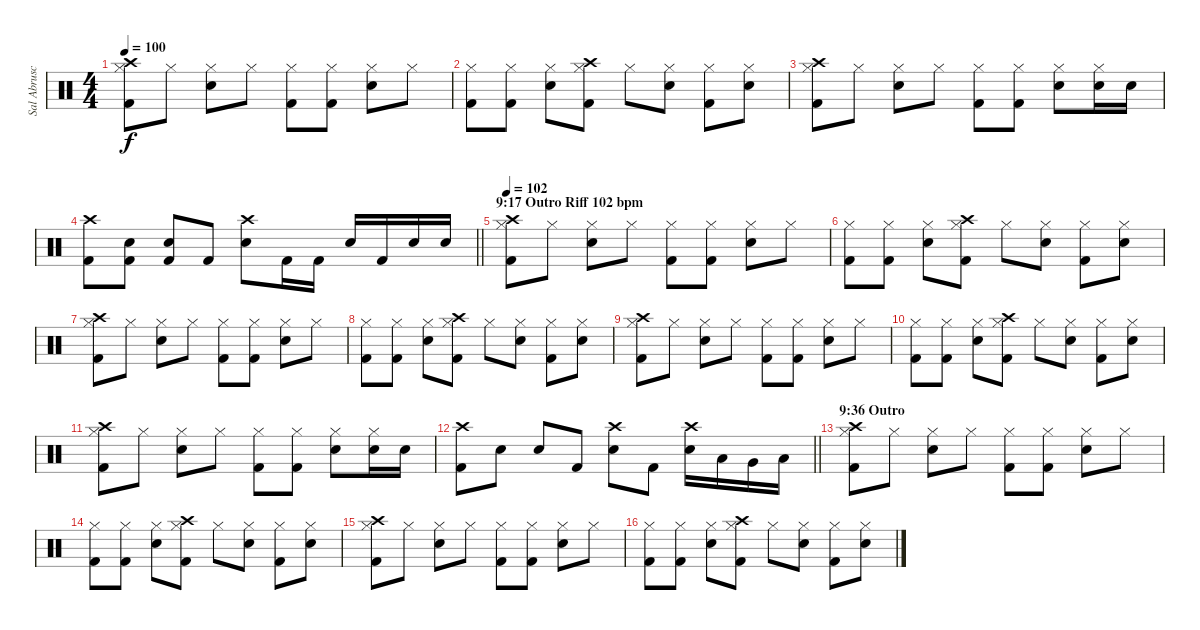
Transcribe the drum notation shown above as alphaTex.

\track ("Sal Abruscato (Drums)" "Sal Abrusc") {instrument percussion}
\staff {score}
\articulation defaults
\ts (4 4)
\tempo 100
\clef neutral
\ks c
("Crash high (hit)" "Hi-Hat (closed)" "Kick (hit) 2").8{dy f} "Hi-Hat (closed)".8 ("Hi-Hat (closed)" "Electric Snare (hit)").8 "Hi-Hat (closed)".8 ("Hi-Hat (closed)" "Kick (hit) 2").8 ("Hi-Hat (closed)" "Kick (hit) 2").8 ("Hi-Hat (closed)" "Electric Snare (hit)").8 "Hi-Hat (closed)".8 |
("Hi-Hat (closed)" "Kick (hit) 2").8 ("Hi-Hat (closed)" "Kick (hit) 2").8 ("Hi-Hat (closed)" "Electric Snare (hit)").8 ("Crash high (hit)" "Hi-Hat (closed)" "Kick (hit) 2").8 "Hi-Hat (closed)".8 ("Hi-Hat (closed)" "Electric Snare (hit)").8 ("Hi-Hat (closed)" "Kick (hit) 2").8 ("Hi-Hat (closed)" "Electric Snare (hit)").8 |
("Crash high (hit)" "Hi-Hat (closed)" "Kick (hit) 2").8 "Hi-Hat (closed)".8 ("Hi-Hat (closed)" "Electric Snare (hit)").8 "Hi-Hat (closed)".8 ("Hi-Hat (closed)" "Kick (hit) 2").8 ("Hi-Hat (closed)" "Kick (hit) 2").8 ("Hi-Hat (closed)" "Electric Snare (hit)").8 ("Electric Snare (hit)" "Hi-Hat (closed)").16 "Electric Snare (hit)".16 |
\barLineRight lightlight
("Crash high (hit)" "Kick (hit) 2").8 ("Electric Snare (hit)" "Kick (hit) 2").8 ("Electric Snare (hit)" "Kick (hit) 2").8 "Kick (hit) 2".8 ("Crash high (hit)" "Electric Snare (hit)").8 "Kick (hit) 2".16 "Kick (hit) 2".16 "Electric Snare (hit)".16 "Kick (hit) 2".16 "Electric Snare (hit)".16 "Electric Snare (hit)".16 |
\section ("" "9:17 Outro Riff 102 bpm")
\tempo 102
("Crash high (hit)" "Hi-Hat (closed)" "Kick (hit) 2").8 "Hi-Hat (closed)".8 ("Hi-Hat (closed)" "Electric Snare (hit)").8 "Hi-Hat (closed)".8 ("Hi-Hat (closed)" "Kick (hit) 2").8 ("Hi-Hat (closed)" "Kick (hit) 2").8 ("Hi-Hat (closed)" "Electric Snare (hit)").8 "Hi-Hat (closed)".8 |
("Hi-Hat (closed)" "Kick (hit) 2").8 ("Hi-Hat (closed)" "Kick (hit) 2").8 ("Hi-Hat (closed)" "Electric Snare (hit)").8 ("Crash high (hit)" "Hi-Hat (closed)" "Kick (hit) 2").8 "Hi-Hat (closed)".8 ("Hi-Hat (closed)" "Electric Snare (hit)").8 ("Hi-Hat (closed)" "Kick (hit) 2").8 ("Hi-Hat (closed)" "Electric Snare (hit)").8 |
("Crash high (hit)" "Hi-Hat (closed)" "Kick (hit) 2").8 "Hi-Hat (closed)".8 ("Hi-Hat (closed)" "Electric Snare (hit)").8 "Hi-Hat (closed)".8 ("Hi-Hat (closed)" "Kick (hit) 2").8 ("Hi-Hat (closed)" "Kick (hit) 2").8 ("Hi-Hat (closed)" "Electric Snare (hit)").8 "Hi-Hat (closed)".8 |
("Hi-Hat (closed)" "Kick (hit) 2").8 ("Hi-Hat (closed)" "Kick (hit) 2").8 ("Hi-Hat (closed)" "Electric Snare (hit)").8 ("Crash high (hit)" "Hi-Hat (closed)" "Kick (hit) 2").8 "Hi-Hat (closed)".8 ("Hi-Hat (closed)" "Electric Snare (hit)").8 ("Hi-Hat (closed)" "Kick (hit) 2").8 ("Hi-Hat (closed)" "Electric Snare (hit)").8 |
("Crash high (hit)" "Hi-Hat (closed)" "Kick (hit) 2").8 "Hi-Hat (closed)".8 ("Hi-Hat (closed)" "Electric Snare (hit)").8 "Hi-Hat (closed)".8 ("Hi-Hat (closed)" "Kick (hit) 2").8 ("Hi-Hat (closed)" "Kick (hit) 2").8 ("Hi-Hat (closed)" "Electric Snare (hit)").8 "Hi-Hat (closed)".8 |
("Hi-Hat (closed)" "Kick (hit) 2").8 ("Hi-Hat (closed)" "Kick (hit) 2").8 ("Hi-Hat (closed)" "Electric Snare (hit)").8 ("Crash high (hit)" "Hi-Hat (closed)" "Kick (hit) 2").8 "Hi-Hat (closed)".8 ("Hi-Hat (closed)" "Electric Snare (hit)").8 ("Hi-Hat (closed)" "Kick (hit) 2").8 ("Hi-Hat (closed)" "Electric Snare (hit)").8 |
("Crash high (hit)" "Hi-Hat (closed)" "Kick (hit) 2").8 "Hi-Hat (closed)".8 ("Hi-Hat (closed)" "Electric Snare (hit)").8 "Hi-Hat (closed)".8 ("Hi-Hat (closed)" "Kick (hit) 2").8 ("Hi-Hat (closed)" "Kick (hit) 2").8 ("Hi-Hat (closed)" "Electric Snare (hit)").8 ("Electric Snare (hit)" "Hi-Hat (closed)").16 "Electric Snare (hit)".16 |
\barLineRight lightlight
("Crash high (hit)" "Kick (hit) 2").8 "Electric Snare (hit)".8 "Electric Snare (hit)".8 "Kick (hit) 2".8 ("Crash high (hit)" "Electric Snare (hit)").8 "Kick (hit) 2".8 ("Crash high (hit)" "Electric Snare (hit)").16 "Low Tom (hit)".16 "Very Low Tom (hit)".16 "Low Floor Tom (hit)".16 |
\section ("" "9:36 Outro")
("Crash high (hit)" "Hi-Hat (closed)" "Kick (hit) 2").8 "Hi-Hat (closed)".8 ("Hi-Hat (closed)" "Electric Snare (hit)").8 "Hi-Hat (closed)".8 ("Hi-Hat (closed)" "Kick (hit) 2").8 ("Hi-Hat (closed)" "Kick (hit) 2").8 ("Hi-Hat (closed)" "Electric Snare (hit)").8 "Hi-Hat (closed)".8 |
("Hi-Hat (closed)" "Kick (hit) 2").8 ("Hi-Hat (closed)" "Kick (hit) 2").8 ("Hi-Hat (closed)" "Electric Snare (hit)").8 ("Crash high (hit)" "Hi-Hat (closed)" "Kick (hit) 2").8 "Hi-Hat (closed)".8 ("Hi-Hat (closed)" "Electric Snare (hit)").8 ("Hi-Hat (closed)" "Kick (hit) 2").8 ("Hi-Hat (closed)" "Electric Snare (hit)").8 |
("Crash high (hit)" "Hi-Hat (closed)" "Kick (hit) 2").8 "Hi-Hat (closed)".8 ("Hi-Hat (closed)" "Electric Snare (hit)").8 "Hi-Hat (closed)".8 ("Hi-Hat (closed)" "Kick (hit) 2").8 ("Hi-Hat (closed)" "Kick (hit) 2").8 ("Hi-Hat (closed)" "Electric Snare (hit)").8 "Hi-Hat (closed)".8 |
("Hi-Hat (closed)" "Kick (hit) 2").8 ("Hi-Hat (closed)" "Kick (hit) 2").8 ("Hi-Hat (closed)" "Electric Snare (hit)").8 ("Crash high (hit)" "Hi-Hat (closed)" "Kick (hit) 2").8 "Hi-Hat (closed)".8 ("Hi-Hat (closed)" "Electric Snare (hit)").8 ("Hi-Hat (closed)" "Kick (hit) 2").8 ("Hi-Hat (closed)" "Electric Snare (hit)").8
